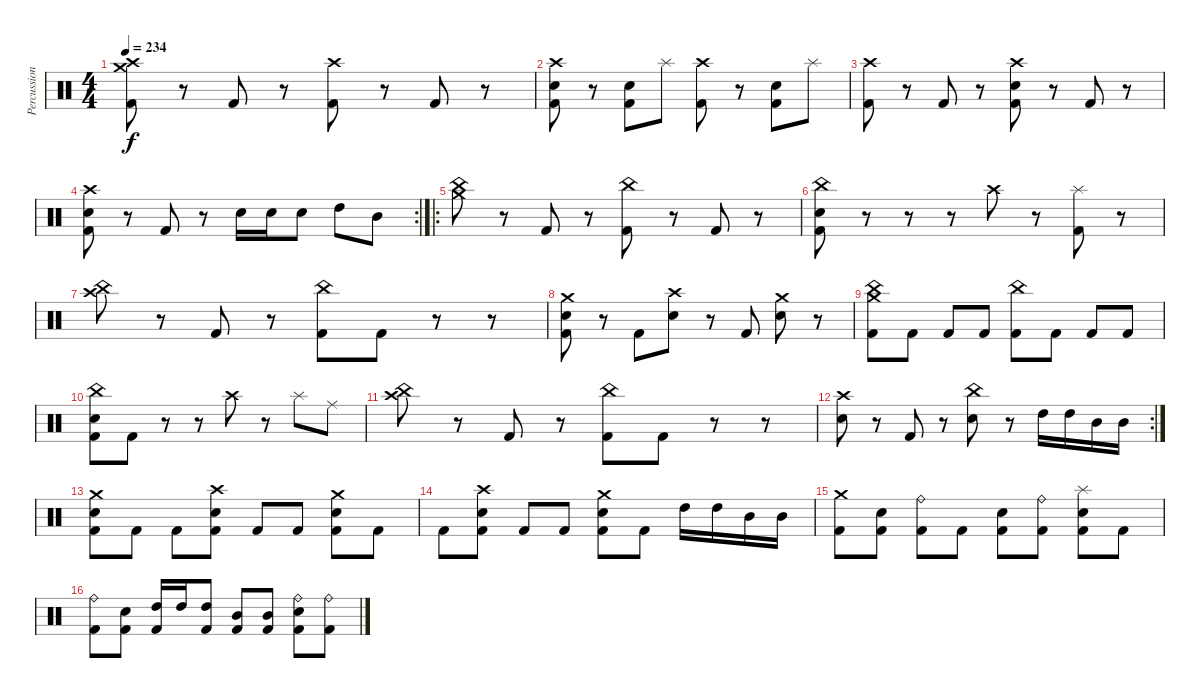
\track ("Percussion" "Percussion") {instrument percussion}
\staff {score}
\articulation defaults
\ts (4 4)
\tempo 234
\clef neutral
\ks c
("Crash medium (hit)" "Crash high (hit)" "Kick (hit) 2").8{dy f} r.8 "Kick (hit) 2".8 r.8 ("Crash high (hit)" "Kick (hit) 2").8 r.8 "Kick (hit) 2".8 r.8 |
("Crash high (hit)" "Electric Snare (hit)" "Kick (hit) 2").8 r.8 ("Electric Snare (hit)" "Kick (hit) 2").8 "Splash (hit)".8 ("Crash high (hit)" "Kick (hit) 2").8 r.8 ("Electric Snare (hit)" "Kick (hit) 2").8 "Splash (hit)".8 |
("Crash high (hit)" "Kick (hit) 2").8 r.8 "Kick (hit) 2".8 r.8 ("Crash high (hit)" "Electric Snare (hit)" "Kick (hit) 2").8 r.8 "Kick (hit) 2".8 r.8 |
\rc 2
("Crash high (hit)" "Electric Snare (hit)" "Kick (hit) 2").8 r.8 "Kick (hit) 2".8 r.8 "Electric Snare (hit)".16 "Electric Snare (hit)".16 "Electric Snare (hit)".8 "High Tom (hit)".8 "Mid Tom (hit)".8 |
\ro
("Crash medium (hit)" "China (hit)").8 r.8 "Kick (hit) 2".8 r.8 ("China (hit)" "Kick (hit) 2").8 r.8 "Kick (hit) 2".8 r.8 |
("China (hit)" "Electric Snare (hit)" "Kick (hit) 2").8 r.8 r.8 r.8 "Crash high (hit)".8 r.8 ("Splash (hit)" "Kick (hit) 2").8 r.8 |
("China (hit)" "Crash high (hit)").8 r.8 "Kick (hit) 2".8 r.8 ("China (hit)" "Kick (hit) 2").8 "Kick (hit) 2".8 r.8 r.8 |
("Crash medium (hit)" "Electric Snare (hit)" "Kick (hit) 2").8 r.8 "Kick (hit) 2".8 ("Crash high (hit)" "Electric Snare (hit)").8 r.8 "Kick (hit) 2".8 ("Crash medium (hit)" "Electric Snare (hit)").8 r.8 |
("Crash medium (hit)" "China (hit)" "Kick (hit) 2").8 "Kick (hit) 2".8 "Kick (hit) 2".8 "Kick (hit) 2".8 ("China (hit)" "Kick (hit) 2").8 "Kick (hit) 2".8 "Kick (hit) 2".8 "Kick (hit) 2".8 |
("China (hit)" "Electric Snare (hit)" "Kick (hit) 2").8 "Kick (hit) 2".8 r.8 r.8 "Crash high (hit)".8 r.8 "Splash (hit)".8 "Ride (middle)".8 |
("China (hit)" "Crash high (hit)").8 r.8 "Kick (hit) 2".8 r.8 ("China (hit)" "Kick (hit) 2").8 "Kick (hit) 2".8 r.8 r.8 |
\rc 2
("Crash high (hit)" "Electric Snare (hit)").8 r.8 "Kick (hit) 2".8 r.8 ("China (hit)" "Electric Snare (hit)").8 r.8 "High Tom (hit)".16 "High Tom (hit)".16 "Mid Tom (hit)".16 "Mid Tom (hit)".16 |
("Crash medium (hit)" "Electric Snare (hit)" "Kick (hit) 2").8 "Kick (hit) 2".8 "Kick (hit) 2".8 ("Crash high (hit)" "Electric Snare (hit)" "Kick (hit) 2").8 "Kick (hit) 2".8 "Kick (hit) 2".8 ("Crash medium (hit)" "Electric Snare (hit)" "Kick (hit) 2").8 "Kick (hit) 2".8 |
"Kick (hit) 2".8 ("Crash high (hit)" "Electric Snare (hit)" "Kick (hit) 2").8 "Kick (hit) 2".8 "Kick (hit) 2".8 ("Crash medium (hit)" "Electric Snare (hit)" "Kick (hit) 2").8 "Kick (hit) 2".8 "High Tom (hit)".16 "High Tom (hit)".16 "Mid Tom (hit)".16 "Mid Tom (hit)".16 |
("Crash medium (hit)" "Kick (hit) 2").8 ("Electric Snare (hit)" "Kick (hit) 2").8 ("Ride (bell)" "Kick (hit) 2").8 "Kick (hit) 2".8 ("Electric Snare (hit)" "Kick (hit) 2").8 ("Ride (bell)" "Kick (hit) 2").8 ("Splash (hit)" "Electric Snare (hit)" "Kick (hit) 2").8 "Kick (hit) 2".8 |
("Ride (bell)" "Kick (hit) 2").8 ("Electric Snare (hit)" "Kick (hit) 2").8 ("High Tom (hit)" "Kick (hit) 2").16 "High Tom (hit)".16 ("High Tom (hit)" "Kick (hit) 2").8 ("Mid Tom (hit)" "Kick (hit) 2").8 ("Mid Tom (hit)" "Kick (hit) 2").8 ("Ride (bell)" "Electric Snare (hit)" "Kick (hit) 2").8 ("Ride (bell)" "Kick (hit) 2").8
